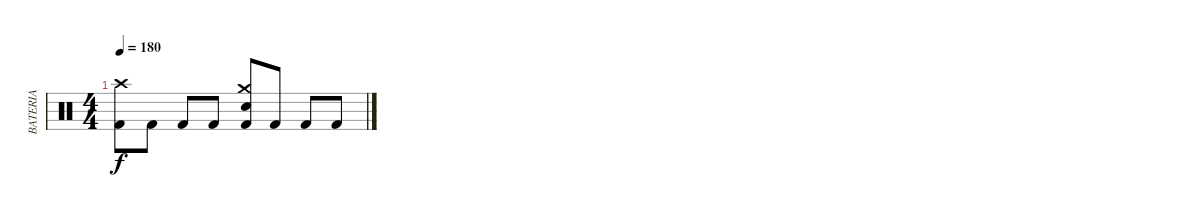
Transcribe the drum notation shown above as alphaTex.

\track ("BATERIA" "BATERIA") {instrument percussion}
\staff {score}
\articulation defaults
\ts (4 4)
\tempo 180
\clef neutral
\ks c
("Crash high (hit)" "Kick (hit) 2").8{dy f} "Kick (hit) 2".8 "Kick (hit) 2".8 "Kick (hit) 2".8 ("Crash medium (hit)" "Electric Snare (hit)" "Kick (hit) 2").8 "Kick (hit) 2".8 "Kick (hit) 2".8 "Kick (hit) 2".8
